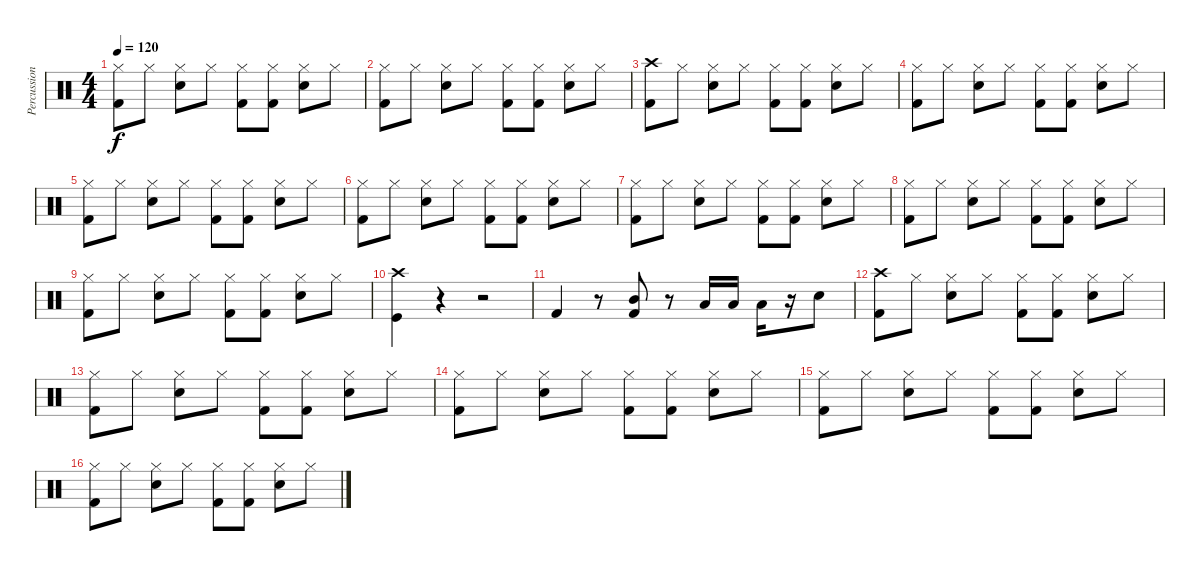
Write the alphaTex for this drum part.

\track ("Percussion" "Percussion") {instrument percussion}
\staff {score}
\articulation defaults
\ts (4 4)
\tempo 120
\clef neutral
\ks c
("Hi-Hat (closed)" "Kick (hit) 2").8{dy f} "Hi-Hat (closed)".8 ("Hi-Hat (closed)" "Electric Snare (hit)").8 "Hi-Hat (closed)".8 ("Hi-Hat (closed)" "Kick (hit) 2").8 ("Hi-Hat (closed)" "Kick (hit) 2").8 ("Hi-Hat (closed)" "Electric Snare (hit)").8 "Hi-Hat (closed)".8 |
("Hi-Hat (closed)" "Kick (hit) 2").8 "Hi-Hat (closed)".8 ("Hi-Hat (closed)" "Electric Snare (hit)").8 "Hi-Hat (closed)".8 ("Hi-Hat (closed)" "Kick (hit) 2").8 ("Hi-Hat (closed)" "Kick (hit) 2").8 ("Hi-Hat (closed)" "Electric Snare (hit)").8 "Hi-Hat (closed)".8 |
("Crash high (hit)" "Kick (hit) 2").8 "Hi-Hat (closed)".8 ("Hi-Hat (closed)" "Electric Snare (hit)").8 "Hi-Hat (closed)".8 ("Hi-Hat (closed)" "Kick (hit) 2").8 ("Hi-Hat (closed)" "Kick (hit) 2").8 ("Hi-Hat (closed)" "Electric Snare (hit)").8 "Hi-Hat (closed)".8 |
("Hi-Hat (closed)" "Kick (hit) 2").8 "Hi-Hat (closed)".8 ("Hi-Hat (closed)" "Electric Snare (hit)").8 "Hi-Hat (closed)".8 ("Hi-Hat (closed)" "Kick (hit) 2").8 ("Hi-Hat (closed)" "Kick (hit) 2").8 ("Hi-Hat (closed)" "Electric Snare (hit)").8 "Hi-Hat (closed)".8 |
("Hi-Hat (closed)" "Kick (hit) 2").8 "Hi-Hat (closed)".8 ("Hi-Hat (closed)" "Electric Snare (hit)").8 "Hi-Hat (closed)".8 ("Hi-Hat (closed)" "Kick (hit) 2").8 ("Hi-Hat (closed)" "Kick (hit) 2").8 ("Hi-Hat (closed)" "Electric Snare (hit)").8 "Hi-Hat (closed)".8 |
("Hi-Hat (closed)" "Kick (hit) 2").8 "Hi-Hat (closed)".8 ("Hi-Hat (closed)" "Electric Snare (hit)").8 "Hi-Hat (closed)".8 ("Hi-Hat (closed)" "Kick (hit) 2").8 ("Hi-Hat (closed)" "Kick (hit) 2").8 ("Hi-Hat (closed)" "Electric Snare (hit)").8 "Hi-Hat (closed)".8 |
("Hi-Hat (closed)" "Kick (hit) 2").8 "Hi-Hat (closed)".8 ("Hi-Hat (closed)" "Electric Snare (hit)").8 "Hi-Hat (closed)".8 ("Hi-Hat (closed)" "Kick (hit) 2").8 ("Hi-Hat (closed)" "Kick (hit) 2").8 ("Hi-Hat (closed)" "Electric Snare (hit)").8 "Hi-Hat (closed)".8 |
("Hi-Hat (closed)" "Kick (hit) 2").8 "Hi-Hat (closed)".8 ("Hi-Hat (closed)" "Electric Snare (hit)").8 "Hi-Hat (closed)".8 ("Hi-Hat (closed)" "Kick (hit) 2").8 ("Hi-Hat (closed)" "Kick (hit) 2").8 ("Hi-Hat (closed)" "Electric Snare (hit)").8 "Hi-Hat (closed)".8 |
("Hi-Hat (closed)" "Kick (hit) 2").8 "Hi-Hat (closed)".8 ("Hi-Hat (closed)" "Electric Snare (hit)").8 "Hi-Hat (closed)".8 ("Hi-Hat (closed)" "Kick (hit) 2").8 ("Hi-Hat (closed)" "Kick (hit) 2").8 ("Hi-Hat (closed)" "Electric Snare (hit)").8 "Hi-Hat (closed)".8 |
("Crash high (hit)" "Kick (hit)").4 r.4 r.2 |
"Kick (hit) 2".4 r.8 ("Mid Tom (hit)" "Kick (hit) 2").8 r.8 "Low Tom (hit)".16 "Low Tom (hit)".16 "Low Tom (hit)".16 r.16 "Electric Snare (hit)".8 |
("Crash high (hit)" "Kick (hit) 2").8 "Hi-Hat (closed)".8 ("Hi-Hat (closed)" "Electric Snare (hit)").8 "Hi-Hat (closed)".8 ("Hi-Hat (closed)" "Kick (hit) 2").8 ("Hi-Hat (closed)" "Kick (hit) 2").8 ("Hi-Hat (closed)" "Electric Snare (hit)").8 "Hi-Hat (closed)".8 |
("Hi-Hat (closed)" "Kick (hit) 2").8 "Hi-Hat (closed)".8 ("Hi-Hat (closed)" "Electric Snare (hit)").8 "Hi-Hat (closed)".8 ("Hi-Hat (closed)" "Kick (hit) 2").8 ("Hi-Hat (closed)" "Kick (hit) 2").8 ("Hi-Hat (closed)" "Electric Snare (hit)").8 "Hi-Hat (closed)".8 |
("Hi-Hat (closed)" "Kick (hit) 2").8 "Hi-Hat (closed)".8 ("Hi-Hat (closed)" "Electric Snare (hit)").8 "Hi-Hat (closed)".8 ("Hi-Hat (closed)" "Kick (hit) 2").8 ("Hi-Hat (closed)" "Kick (hit) 2").8 ("Hi-Hat (closed)" "Electric Snare (hit)").8 "Hi-Hat (closed)".8 |
("Hi-Hat (closed)" "Kick (hit) 2").8 "Hi-Hat (closed)".8 ("Hi-Hat (closed)" "Electric Snare (hit)").8 "Hi-Hat (closed)".8 ("Hi-Hat (closed)" "Kick (hit) 2").8 ("Hi-Hat (closed)" "Kick (hit) 2").8 ("Hi-Hat (closed)" "Electric Snare (hit)").8 "Hi-Hat (closed)".8 |
("Hi-Hat (closed)" "Kick (hit) 2").8 "Hi-Hat (closed)".8 ("Hi-Hat (closed)" "Electric Snare (hit)").8 "Hi-Hat (closed)".8 ("Hi-Hat (closed)" "Kick (hit) 2").8 ("Hi-Hat (closed)" "Kick (hit) 2").8 ("Hi-Hat (closed)" "Electric Snare (hit)").8 "Hi-Hat (closed)".8
